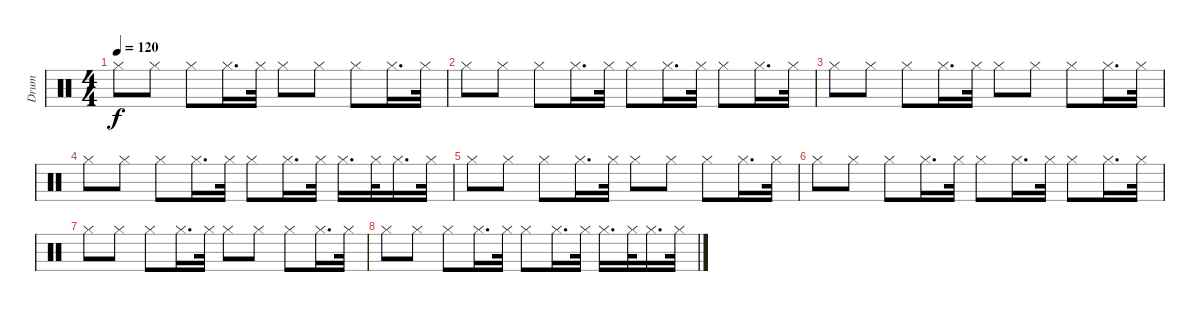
\track ("Drum" "Drum") {instrument percussion}
\staff {score}
\articulation defaults
\ts (4 4)
\tempo 120
\clef neutral
\ks c "Hi-Hat (closed)".8{dy f} "Hi-Hat (closed)".8 "Hi-Hat (closed)".8 "Hi-Hat (closed)".16{d} "Hi-Hat (closed)".32 "Hi-Hat (closed)".8 "Hi-Hat (closed)".8 "Hi-Hat (closed)".8 "Hi-Hat (closed)".16{d} "Hi-Hat (closed)".32
|
"Hi-Hat (closed)".8 "Hi-Hat (closed)".8 "Hi-Hat (closed)".8 "Hi-Hat (closed)".16{d} "Hi-Hat (closed)".32 "Hi-Hat (closed)".8 "Hi-Hat (closed)".16{d} "Hi-Hat (closed)".32 "Hi-Hat (closed)".8 "Hi-Hat (closed)".16{d} "Hi-Hat (closed)".32 |
"Hi-Hat (closed)".8 "Hi-Hat (closed)".8 "Hi-Hat (closed)".8 "Hi-Hat (closed)".16{d} "Hi-Hat (closed)".32 "Hi-Hat (closed)".8 "Hi-Hat (closed)".8 "Hi-Hat (closed)".8 "Hi-Hat (closed)".16{d} "Hi-Hat (closed)".32 |
"Hi-Hat (closed)".8 "Hi-Hat (closed)".8 "Hi-Hat (closed)".8 "Hi-Hat (closed)".16{d} "Hi-Hat (closed)".32 "Hi-Hat (closed)".8 "Hi-Hat (closed)".16{d} "Hi-Hat (closed)".32 "Hi-Hat (closed)".16{d} "Hi-Hat (closed)".32 "Hi-Hat (closed)".16{d} "Hi-Hat (closed)".32 |
"Hi-Hat (closed)".8 "Hi-Hat (closed)".8 "Hi-Hat (closed)".8 "Hi-Hat (closed)".16{d} "Hi-Hat (closed)".32 "Hi-Hat (closed)".8 "Hi-Hat (closed)".8 "Hi-Hat (closed)".8 "Hi-Hat (closed)".16{d} "Hi-Hat (closed)".32 |
"Hi-Hat (closed)".8 "Hi-Hat (closed)".8 "Hi-Hat (closed)".8 "Hi-Hat (closed)".16{d} "Hi-Hat (closed)".32 "Hi-Hat (closed)".8 "Hi-Hat (closed)".16{d} "Hi-Hat (closed)".32 "Hi-Hat (closed)".8 "Hi-Hat (closed)".16{d} "Hi-Hat (closed)".32 |
"Hi-Hat (closed)".8 "Hi-Hat (closed)".8 "Hi-Hat (closed)".8 "Hi-Hat (closed)".16{d} "Hi-Hat (closed)".32 "Hi-Hat (closed)".8 "Hi-Hat (closed)".8 "Hi-Hat (closed)".8 "Hi-Hat (closed)".16{d} "Hi-Hat (closed)".32 |
"Hi-Hat (closed)".8 "Hi-Hat (closed)".8 "Hi-Hat (closed)".8 "Hi-Hat (closed)".16{d} "Hi-Hat (closed)".32 "Hi-Hat (closed)".8 "Hi-Hat (closed)".16{d} "Hi-Hat (closed)".32 "Hi-Hat (closed)".16{d} "Hi-Hat (closed)".32 "Hi-Hat (closed)".16{d} "Hi-Hat (closed)".32
